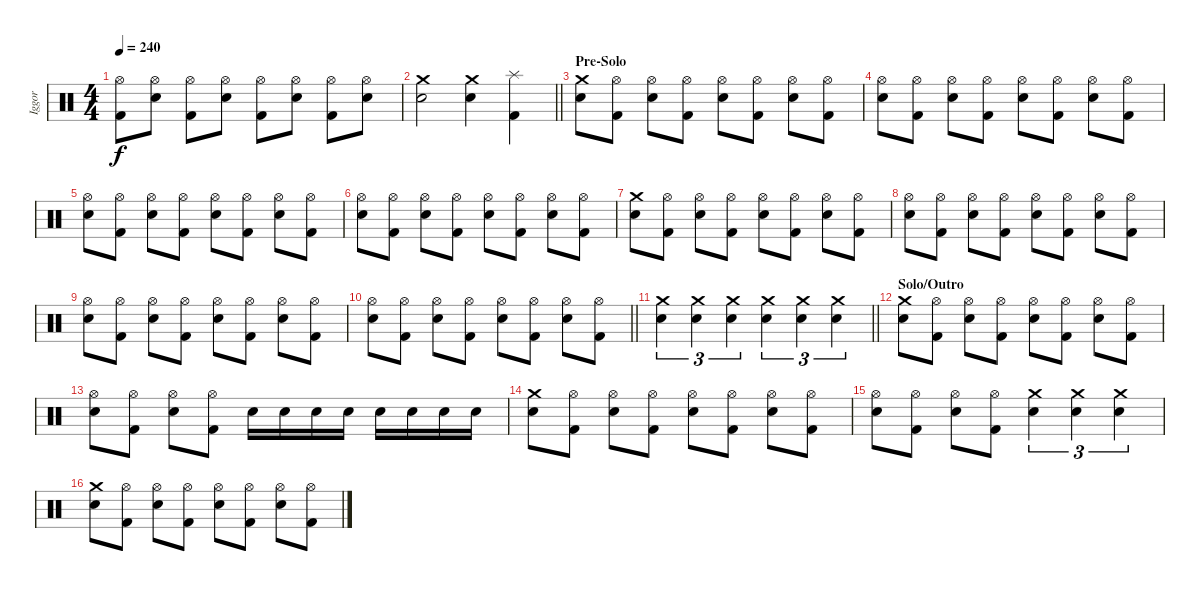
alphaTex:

\track ("Iggor" "Iggor") {instrument percussion}
\staff {score}
\articulation defaults
\ts (4 4)
\tempo 240
\clef neutral
\ks c
("Hi-Hat (open)" "Kick (hit) 2").8{dy f} ("Hi-Hat (open)" "Snare (hit) 2").8 ("Hi-Hat (open)" "Kick (hit) 2").8 ("Hi-Hat (open)" "Snare (hit) 2").8 ("Hi-Hat (open)" "Kick (hit) 2").8 ("Hi-Hat (open)" "Snare (hit) 2").8 ("Hi-Hat (open)" "Kick (hit) 2").8 ("Hi-Hat (open)" "Snare (hit) 2").8 |
\barLineRight lightlight
("Crash medium (hit)" "Snare (hit) 2").2 ("Crash medium (hit)" "Snare (hit) 2").4 ("Splash (hit)" "Kick (hit) 2").4 |
\section ("" "Pre-Solo")
("Crash medium (hit)" "Snare (hit) 2").8 ("Hi-Hat (open)" "Kick (hit) 2").8 ("Hi-Hat (open)" "Snare (hit) 2").8 ("Hi-Hat (open)" "Kick (hit) 2").8 ("Hi-Hat (open)" "Snare (hit) 2").8 ("Hi-Hat (open)" "Kick (hit) 2").8 ("Hi-Hat (open)" "Snare (hit) 2").8 ("Hi-Hat (open)" "Kick (hit) 2").8 |
("Hi-Hat (open)" "Snare (hit) 2").8 ("Hi-Hat (open)" "Kick (hit) 2").8 ("Hi-Hat (open)" "Snare (hit) 2").8 ("Hi-Hat (open)" "Kick (hit) 2").8 ("Hi-Hat (open)" "Snare (hit) 2").8 ("Hi-Hat (open)" "Kick (hit) 2").8 ("Hi-Hat (open)" "Snare (hit) 2").8 ("Hi-Hat (open)" "Kick (hit) 2").8 |
("Hi-Hat (open)" "Snare (hit) 2").8 ("Hi-Hat (open)" "Kick (hit) 2").8 ("Hi-Hat (open)" "Snare (hit) 2").8 ("Hi-Hat (open)" "Kick (hit) 2").8 ("Hi-Hat (open)" "Snare (hit) 2").8 ("Hi-Hat (open)" "Kick (hit) 2").8 ("Hi-Hat (open)" "Snare (hit) 2").8 ("Hi-Hat (open)" "Kick (hit) 2").8 |
("Hi-Hat (open)" "Snare (hit) 2").8 ("Hi-Hat (open)" "Kick (hit) 2").8 ("Hi-Hat (open)" "Snare (hit) 2").8 ("Hi-Hat (open)" "Kick (hit) 2").8 ("Hi-Hat (open)" "Snare (hit) 2").8 ("Hi-Hat (open)" "Kick (hit) 2").8 ("Hi-Hat (open)" "Snare (hit) 2").8 ("Hi-Hat (open)" "Kick (hit) 2").8 |
("Crash medium (hit)" "Snare (hit) 2").8 ("Hi-Hat (open)" "Kick (hit) 2").8 ("Hi-Hat (open)" "Snare (hit) 2").8 ("Hi-Hat (open)" "Kick (hit) 2").8 ("Hi-Hat (open)" "Snare (hit) 2").8 ("Hi-Hat (open)" "Kick (hit) 2").8 ("Hi-Hat (open)" "Snare (hit) 2").8 ("Hi-Hat (open)" "Kick (hit) 2").8 |
("Hi-Hat (open)" "Snare (hit) 2").8 ("Hi-Hat (open)" "Kick (hit) 2").8 ("Hi-Hat (open)" "Snare (hit) 2").8 ("Hi-Hat (open)" "Kick (hit) 2").8 ("Hi-Hat (open)" "Snare (hit) 2").8 ("Hi-Hat (open)" "Kick (hit) 2").8 ("Hi-Hat (open)" "Snare (hit) 2").8 ("Hi-Hat (open)" "Kick (hit) 2").8 |
("Hi-Hat (open)" "Snare (hit) 2").8 ("Hi-Hat (open)" "Kick (hit) 2").8 ("Hi-Hat (open)" "Snare (hit) 2").8 ("Hi-Hat (open)" "Kick (hit) 2").8 ("Hi-Hat (open)" "Snare (hit) 2").8 ("Hi-Hat (open)" "Kick (hit) 2").8 ("Hi-Hat (open)" "Snare (hit) 2").8 ("Hi-Hat (open)" "Kick (hit) 2").8 |
\barLineRight lightlight
("Hi-Hat (open)" "Snare (hit) 2").8 ("Hi-Hat (open)" "Kick (hit) 2").8 ("Hi-Hat (open)" "Snare (hit) 2").8 ("Hi-Hat (open)" "Kick (hit) 2").8 ("Hi-Hat (open)" "Snare (hit) 2").8 ("Hi-Hat (open)" "Kick (hit) 2").8 ("Hi-Hat (open)" "Snare (hit) 2").8 ("Hi-Hat (open)" "Kick (hit) 2").8 |
\barLineRight lightlight
("Crash medium (hit)" "Snare (hit) 2").4{tu (3 2)} ("Crash medium (hit)" "Snare (hit) 2").4{tu (3 2)} ("Crash medium (hit)" "Snare (hit) 2").4{tu (3 2)} ("Crash medium (hit)" "Snare (hit) 2").4{tu (3 2)} ("Crash medium (hit)" "Snare (hit) 2").4{tu (3 2)} ("Crash medium (hit)" "Snare (hit) 2").4{tu (3 2)} |
\section ("" "Solo/Outro")
("Crash medium (hit)" "Snare (hit) 2").8 ("Hi-Hat (open)" "Kick (hit) 2").8 ("Hi-Hat (open)" "Snare (hit) 2").8 ("Hi-Hat (open)" "Kick (hit) 2").8 ("Hi-Hat (open)" "Snare (hit) 2").8 ("Hi-Hat (open)" "Kick (hit) 2").8 ("Hi-Hat (open)" "Snare (hit) 2").8 ("Hi-Hat (open)" "Kick (hit) 2").8 |
("Hi-Hat (open)" "Snare (hit) 2").8 ("Hi-Hat (open)" "Kick (hit) 2").8 ("Hi-Hat (open)" "Snare (hit) 2").8 ("Hi-Hat (open)" "Kick (hit) 2").8 "Snare (hit) 2".16 "Snare (hit) 2".16 "Snare (hit) 2".16 "Snare (hit) 2".16 "Snare (hit) 2".16 "Snare (hit) 2".16 "Snare (hit) 2".16 "Snare (hit) 2".16 |
("Crash medium (hit)" "Snare (hit) 2").8 ("Hi-Hat (open)" "Kick (hit) 2").8 ("Hi-Hat (open)" "Snare (hit) 2").8 ("Hi-Hat (open)" "Kick (hit) 2").8 ("Hi-Hat (open)" "Snare (hit) 2").8 ("Hi-Hat (open)" "Kick (hit) 2").8 ("Hi-Hat (open)" "Snare (hit) 2").8 ("Hi-Hat (open)" "Kick (hit) 2").8 |
("Hi-Hat (open)" "Snare (hit) 2").8 ("Hi-Hat (open)" "Kick (hit) 2").8 ("Hi-Hat (open)" "Snare (hit) 2").8 ("Hi-Hat (open)" "Kick (hit) 2").8 ("Crash medium (hit)" "Snare (hit) 2").4{tu (3 2)} ("Crash medium (hit)" "Snare (hit) 2").4{tu (3 2)} ("Crash medium (hit)" "Snare (hit) 2").4{tu (3 2)} |
("Crash medium (hit)" "Snare (hit) 2").8 ("Hi-Hat (open)" "Kick (hit) 2").8 ("Hi-Hat (open)" "Snare (hit) 2").8 ("Hi-Hat (open)" "Kick (hit) 2").8 ("Hi-Hat (open)" "Snare (hit) 2").8 ("Hi-Hat (open)" "Kick (hit) 2").8 ("Hi-Hat (open)" "Snare (hit) 2").8 ("Hi-Hat (open)" "Kick (hit) 2").8
